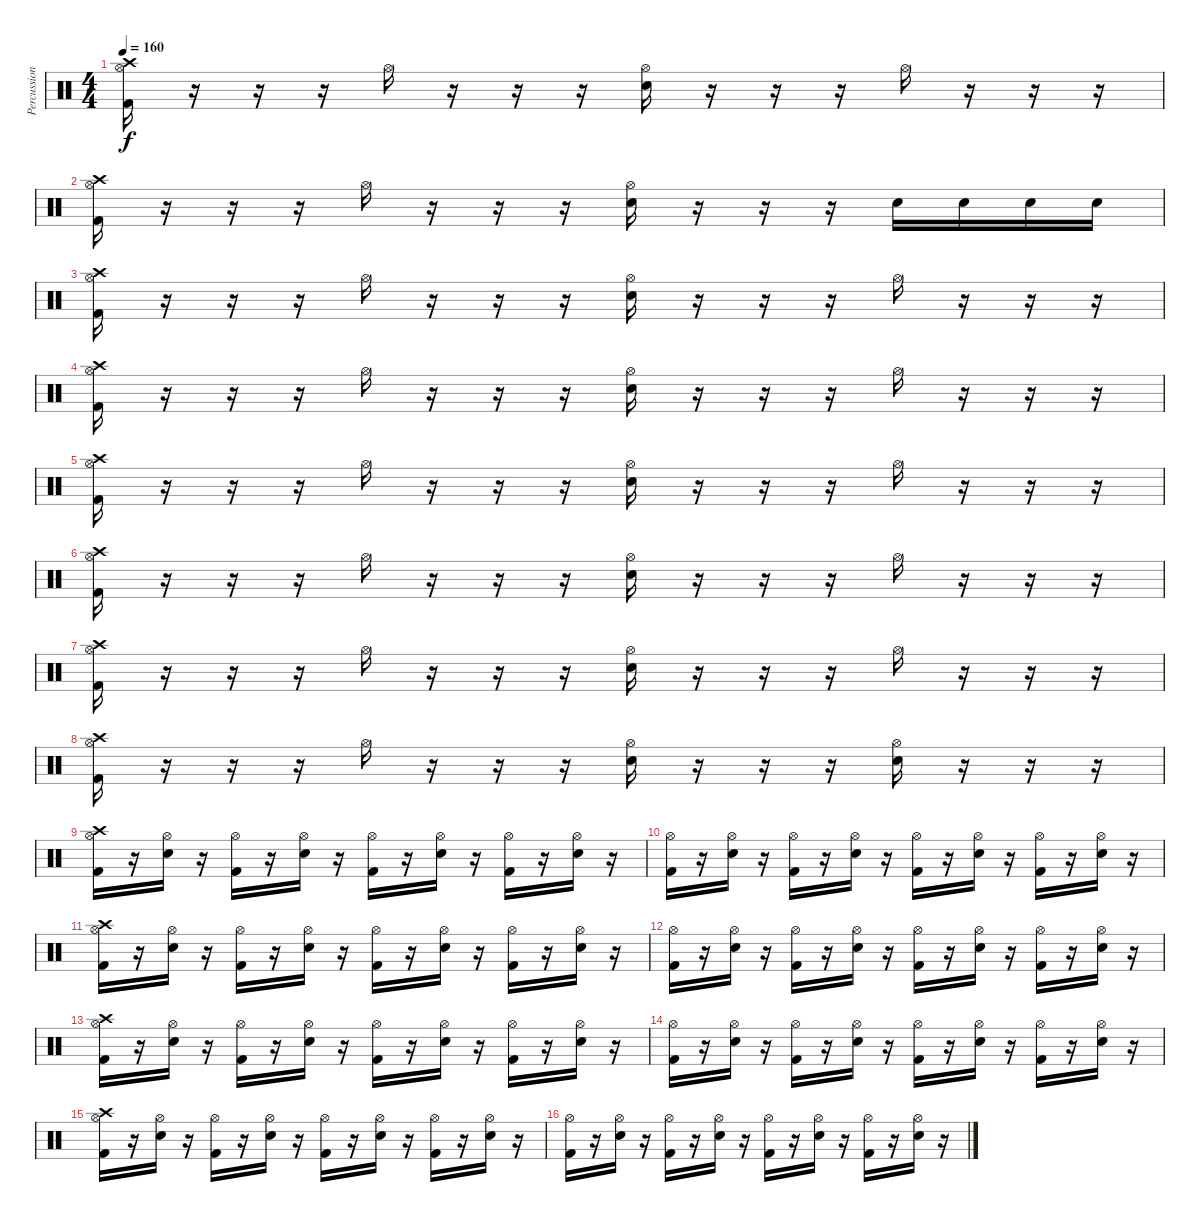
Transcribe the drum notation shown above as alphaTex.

\track ("Percussion" "Percussion") {instrument percussion}
\staff {score}
\articulation defaults
\ts (4 4)
\tempo 160
\clef neutral
\ks c
("Kick (hit) 2" "Hi-Hat (open)" "Crash high (hit)").16{dy f} r.16 r.16 r.16 "Hi-Hat (open)".16 r.16 r.16 r.16 ("Electric Snare (hit)" "Hi-Hat (open)").16 r.16 r.16 r.16 "Hi-Hat (open)".16 r.16 r.16 r.16 |
("Kick (hit) 2" "Hi-Hat (open)" "Crash high (hit)").16 r.16 r.16 r.16 "Hi-Hat (open)".16 r.16 r.16 r.16 ("Electric Snare (hit)" "Hi-Hat (open)").16 r.16 r.16 r.16 "Electric Snare (hit)".16 "Electric Snare (hit)".16 "Electric Snare (hit)".16 "Electric Snare (hit)".16 |
("Kick (hit) 2" "Hi-Hat (open)" "Crash high (hit)").16 r.16 r.16 r.16 "Hi-Hat (open)".16 r.16 r.16 r.16 ("Electric Snare (hit)" "Hi-Hat (open)").16 r.16 r.16 r.16 "Hi-Hat (open)".16 r.16 r.16 r.16 |
("Kick (hit) 2" "Hi-Hat (open)" "Crash high (hit)").16 r.16 r.16 r.16 "Hi-Hat (open)".16 r.16 r.16 r.16 ("Electric Snare (hit)" "Hi-Hat (open)").16 r.16 r.16 r.16 "Hi-Hat (open)".16 r.16 r.16 r.16 |
("Kick (hit) 2" "Hi-Hat (open)" "Crash high (hit)").16 r.16 r.16 r.16 "Hi-Hat (open)".16 r.16 r.16 r.16 ("Electric Snare (hit)" "Hi-Hat (open)").16 r.16 r.16 r.16 "Hi-Hat (open)".16 r.16 r.16 r.16 |
("Kick (hit) 2" "Hi-Hat (open)" "Crash high (hit)").16 r.16 r.16 r.16 "Hi-Hat (open)".16 r.16 r.16 r.16 ("Electric Snare (hit)" "Hi-Hat (open)").16 r.16 r.16 r.16 "Hi-Hat (open)".16 r.16 r.16 r.16 |
("Kick (hit) 2" "Hi-Hat (open)" "Crash high (hit)").16 r.16 r.16 r.16 "Hi-Hat (open)".16 r.16 r.16 r.16 ("Electric Snare (hit)" "Hi-Hat (open)").16 r.16 r.16 r.16 "Hi-Hat (open)".16 r.16 r.16 r.16 |
("Kick (hit) 2" "Hi-Hat (open)" "Crash high (hit)").16 r.16 r.16 r.16 "Hi-Hat (open)".16 r.16 r.16 r.16 ("Electric Snare (hit)" "Hi-Hat (open)").16 r.16 r.16 r.16 ("Electric Snare (hit)" "Hi-Hat (open)").16 r.16 r.16 r.16 |
("Kick (hit) 2" "Hi-Hat (open)" "Crash high (hit)").16 r.16 ("Electric Snare (hit)" "Hi-Hat (open)").16 r.16 ("Kick (hit) 2" "Hi-Hat (open)").16 r.16 ("Electric Snare (hit)" "Hi-Hat (open)").16 r.16 ("Kick (hit) 2" "Hi-Hat (open)").16 r.16 ("Electric Snare (hit)" "Hi-Hat (open)").16 r.16 ("Kick (hit) 2" "Hi-Hat (open)").16 r.16 ("Electric Snare (hit)" "Hi-Hat (open)").16 r.16 |
("Kick (hit) 2" "Hi-Hat (open)").16 r.16 ("Electric Snare (hit)" "Hi-Hat (open)").16 r.16 ("Kick (hit) 2" "Hi-Hat (open)").16 r.16 ("Electric Snare (hit)" "Hi-Hat (open)").16 r.16 ("Kick (hit) 2" "Hi-Hat (open)").16 r.16 ("Electric Snare (hit)" "Hi-Hat (open)").16 r.16 ("Kick (hit) 2" "Hi-Hat (open)").16 r.16 ("Electric Snare (hit)" "Hi-Hat (open)").16 r.16 |
("Kick (hit) 2" "Hi-Hat (open)" "Crash high (hit)").16 r.16 ("Electric Snare (hit)" "Hi-Hat (open)").16 r.16 ("Kick (hit) 2" "Hi-Hat (open)").16 r.16 ("Electric Snare (hit)" "Hi-Hat (open)").16 r.16 ("Kick (hit) 2" "Hi-Hat (open)").16 r.16 ("Electric Snare (hit)" "Hi-Hat (open)").16 r.16 ("Kick (hit) 2" "Hi-Hat (open)").16 r.16 ("Electric Snare (hit)" "Hi-Hat (open)").16 r.16 |
("Kick (hit) 2" "Hi-Hat (open)").16 r.16 ("Electric Snare (hit)" "Hi-Hat (open)").16 r.16 ("Kick (hit) 2" "Hi-Hat (open)").16 r.16 ("Electric Snare (hit)" "Hi-Hat (open)").16 r.16 ("Kick (hit) 2" "Hi-Hat (open)").16 r.16 ("Electric Snare (hit)" "Hi-Hat (open)").16 r.16 ("Kick (hit) 2" "Hi-Hat (open)").16 r.16 ("Electric Snare (hit)" "Hi-Hat (open)").16 r.16 |
("Kick (hit) 2" "Hi-Hat (open)" "Crash high (hit)").16 r.16 ("Electric Snare (hit)" "Hi-Hat (open)").16 r.16 ("Kick (hit) 2" "Hi-Hat (open)").16 r.16 ("Electric Snare (hit)" "Hi-Hat (open)").16 r.16 ("Kick (hit) 2" "Hi-Hat (open)").16 r.16 ("Electric Snare (hit)" "Hi-Hat (open)").16 r.16 ("Kick (hit) 2" "Hi-Hat (open)").16 r.16 ("Electric Snare (hit)" "Hi-Hat (open)").16 r.16 |
("Kick (hit) 2" "Hi-Hat (open)").16 r.16 ("Electric Snare (hit)" "Hi-Hat (open)").16 r.16 ("Kick (hit) 2" "Hi-Hat (open)").16 r.16 ("Electric Snare (hit)" "Hi-Hat (open)").16 r.16 ("Kick (hit) 2" "Hi-Hat (open)").16 r.16 ("Electric Snare (hit)" "Hi-Hat (open)").16 r.16 ("Kick (hit) 2" "Hi-Hat (open)").16 r.16 ("Electric Snare (hit)" "Hi-Hat (open)").16 r.16 |
("Kick (hit) 2" "Hi-Hat (open)" "Crash high (hit)").16 r.16 ("Electric Snare (hit)" "Hi-Hat (open)").16 r.16 ("Kick (hit) 2" "Hi-Hat (open)").16 r.16 ("Electric Snare (hit)" "Hi-Hat (open)").16 r.16 ("Kick (hit) 2" "Hi-Hat (open)").16 r.16 ("Electric Snare (hit)" "Hi-Hat (open)").16 r.16 ("Kick (hit) 2" "Hi-Hat (open)").16 r.16 ("Electric Snare (hit)" "Hi-Hat (open)").16 r.16 |
("Kick (hit) 2" "Hi-Hat (open)").16 r.16 ("Electric Snare (hit)" "Hi-Hat (open)").16 r.16 ("Kick (hit) 2" "Hi-Hat (open)").16 r.16 ("Electric Snare (hit)" "Hi-Hat (open)").16 r.16 ("Kick (hit) 2" "Hi-Hat (open)").16 r.16 ("Electric Snare (hit)" "Hi-Hat (open)").16 r.16 ("Kick (hit) 2" "Hi-Hat (open)").16 r.16 ("Electric Snare (hit)" "Hi-Hat (open)").16 r.16
